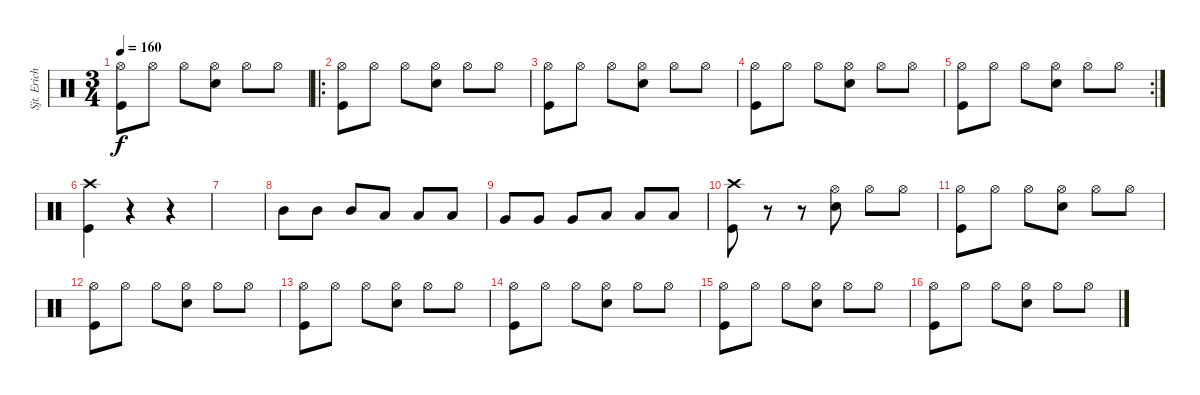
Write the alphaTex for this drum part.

\track ("Sjt. Erichsen" "Sjt. Erich") {instrument percussion}
\staff {score}
\articulation defaults
\ts (3 4)
\tempo 160
\clef neutral
\ks c
("Hi-Hat (open)" "Kick (hit)").8{dy f} "Hi-Hat (open)".8 "Hi-Hat (open)".8 ("Hi-Hat (open)" "Electric Snare (hit)").8 "Hi-Hat (open)".8 "Hi-Hat (open)".8 |
\ro
("Hi-Hat (open)" "Kick (hit)").8 "Hi-Hat (open)".8 "Hi-Hat (open)".8 ("Hi-Hat (open)" "Electric Snare (hit)").8 "Hi-Hat (open)".8 "Hi-Hat (open)".8 |
("Hi-Hat (open)" "Kick (hit)").8 "Hi-Hat (open)".8 "Hi-Hat (open)".8 ("Hi-Hat (open)" "Electric Snare (hit)").8 "Hi-Hat (open)".8 "Hi-Hat (open)".8 |
("Hi-Hat (open)" "Kick (hit)").8 "Hi-Hat (open)".8 "Hi-Hat (open)".8 ("Hi-Hat (open)" "Electric Snare (hit)").8 "Hi-Hat (open)".8 "Hi-Hat (open)".8 |
\rc 2
("Hi-Hat (open)" "Kick (hit)").8 "Hi-Hat (open)".8 "Hi-Hat (open)".8 ("Hi-Hat (open)" "Electric Snare (hit)").8 "Hi-Hat (open)".8 "Hi-Hat (open)".8 |
("Crash high (hit)" "Kick (hit)").4 r.4 r.4 |
|
"Mid Tom (hit)".8 "Mid Tom (hit)".8 "Mid Tom (hit)".8 "Low Tom (hit)".8 "Low Tom (hit)".8 "Low Tom (hit)".8 |
"Very Low Tom (hit)".8 "Very Low Tom (hit)".8 "Very Low Tom (hit)".8 "Low Floor Tom (hit)".8 "Low Floor Tom (hit)".8 "Low Floor Tom (hit)".8 |
("Crash high (hit)" "Kick (hit)").8 r.8 r.8 ("Hi-Hat (open)" "Electric Snare (hit)").8 "Hi-Hat (open)".8 "Hi-Hat (open)".8 |
("Hi-Hat (open)" "Kick (hit)").8 "Hi-Hat (open)".8 "Hi-Hat (open)".8 ("Hi-Hat (open)" "Electric Snare (hit)").8 "Hi-Hat (open)".8 "Hi-Hat (open)".8 |
("Hi-Hat (open)" "Kick (hit)").8 "Hi-Hat (open)".8 "Hi-Hat (open)".8 ("Hi-Hat (open)" "Electric Snare (hit)").8 "Hi-Hat (open)".8 "Hi-Hat (open)".8 |
("Hi-Hat (open)" "Kick (hit)").8 "Hi-Hat (open)".8 "Hi-Hat (open)".8 ("Hi-Hat (open)" "Electric Snare (hit)").8 "Hi-Hat (open)".8 "Hi-Hat (open)".8 |
("Hi-Hat (open)" "Kick (hit)").8 "Hi-Hat (open)".8 "Hi-Hat (open)".8 ("Hi-Hat (open)" "Electric Snare (hit)").8 "Hi-Hat (open)".8 "Hi-Hat (open)".8 |
("Hi-Hat (open)" "Kick (hit)").8 "Hi-Hat (open)".8 "Hi-Hat (open)".8 ("Hi-Hat (open)" "Electric Snare (hit)").8 "Hi-Hat (open)".8 "Hi-Hat (open)".8 |
("Hi-Hat (open)" "Kick (hit)").8 "Hi-Hat (open)".8 "Hi-Hat (open)".8 ("Hi-Hat (open)" "Electric Snare (hit)").8 "Hi-Hat (open)".8 "Hi-Hat (open)".8
